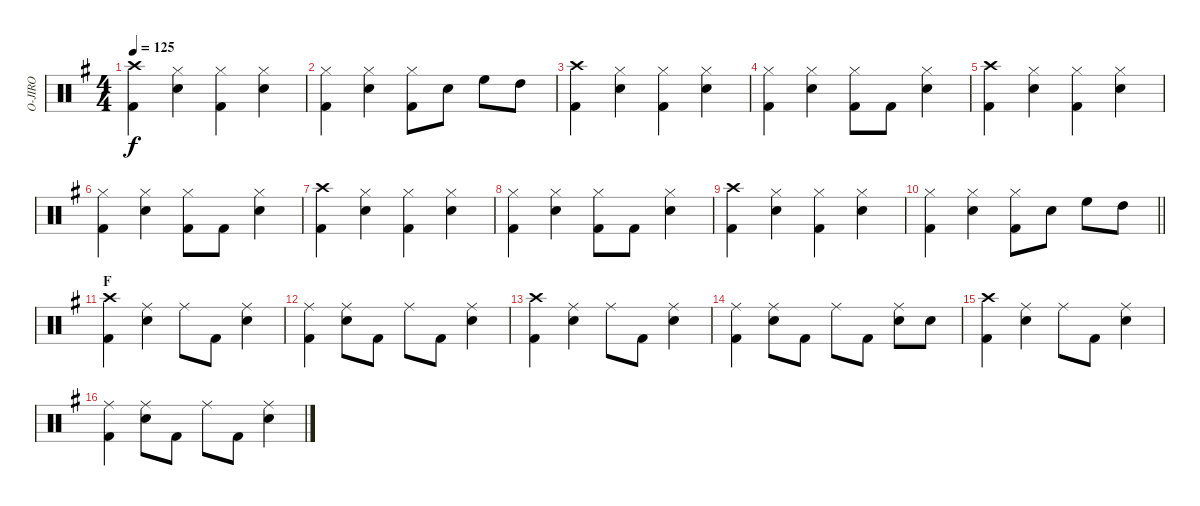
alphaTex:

\track ("O-JIRO" "O-JIRO") {instrument percussion}
\staff {score}
\articulation defaults
\ts (4 4)
\tempo 125
\clef neutral
\ks g
("Crash high (hit)" "Kick (hit) 2").4{dy f} ("Hi-Hat (closed)" "Snare (hit) 2").4 ("Hi-Hat (closed)" "Kick (hit) 2").4 ("Hi-Hat (closed)" "Snare (hit) 2").4 |
("Hi-Hat (closed)" "Kick (hit) 2").4 ("Hi-Hat (closed)" "Snare (hit) 2").4 ("Hi-Hat (closed)" "Kick (hit) 2").8 "Snare (hit) 2".8 "High Floor Tom (hit)".8 "High Tom (hit)".8 |
("Crash high (hit)" "Kick (hit) 2").4 ("Hi-Hat (closed)" "Snare (hit) 2").4 ("Hi-Hat (closed)" "Kick (hit) 2").4 ("Hi-Hat (closed)" "Snare (hit) 2").4 |
("Hi-Hat (closed)" "Kick (hit) 2").4 ("Hi-Hat (closed)" "Snare (hit) 2").4 ("Hi-Hat (closed)" "Kick (hit) 2").8 "Kick (hit) 2".8 ("Hi-Hat (closed)" "Snare (hit) 2").4 |
("Crash high (hit)" "Kick (hit) 2").4 ("Hi-Hat (closed)" "Snare (hit) 2").4 ("Hi-Hat (closed)" "Kick (hit) 2").4 ("Hi-Hat (closed)" "Snare (hit) 2").4 |
("Hi-Hat (closed)" "Kick (hit) 2").4 ("Hi-Hat (closed)" "Snare (hit) 2").4 ("Hi-Hat (closed)" "Kick (hit) 2").8 "Kick (hit) 2".8 ("Hi-Hat (closed)" "Snare (hit) 2").4 |
("Crash high (hit)" "Kick (hit) 2").4 ("Hi-Hat (closed)" "Snare (hit) 2").4 ("Hi-Hat (closed)" "Kick (hit) 2").4 ("Hi-Hat (closed)" "Snare (hit) 2").4 |
("Hi-Hat (closed)" "Kick (hit) 2").4 ("Hi-Hat (closed)" "Snare (hit) 2").4 ("Hi-Hat (closed)" "Kick (hit) 2").8 "Kick (hit) 2".8 ("Hi-Hat (closed)" "Snare (hit) 2").4 |
("Crash high (hit)" "Kick (hit) 2").4 ("Hi-Hat (closed)" "Snare (hit) 2").4 ("Hi-Hat (closed)" "Kick (hit) 2").4 ("Hi-Hat (closed)" "Snare (hit) 2").4 |
\barLineRight lightlight
("Hi-Hat (closed)" "Kick (hit) 2").4 ("Hi-Hat (closed)" "Snare (hit) 2").4 ("Hi-Hat (closed)" "Kick (hit) 2").8 "Snare (hit) 2".8 "High Floor Tom (hit)".8 "High Tom (hit)".8 |
\section ("" "F")
("Crash high (hit)" "Kick (hit) 2").4 ("Ride (middle)" "Snare (hit) 2").4 "Ride (middle)".8 "Kick (hit) 2".8 ("Ride (middle)" "Snare (hit) 2").4 |
("Ride (middle)" "Kick (hit) 2").4 ("Ride (middle)" "Snare (hit) 2").8 "Kick (hit) 2".8 "Ride (middle)".8 "Kick (hit) 2".8 ("Ride (middle)" "Snare (hit) 2").4 |
("Crash high (hit)" "Kick (hit) 2").4 ("Ride (middle)" "Snare (hit) 2").4 "Ride (middle)".8 "Kick (hit) 2".8 ("Ride (middle)" "Snare (hit) 2").4 |
("Ride (middle)" "Kick (hit) 2").4 ("Ride (middle)" "Snare (hit) 2").8 "Kick (hit) 2".8 "Ride (middle)".8 "Kick (hit) 2".8 ("Ride (middle)" "Snare (hit) 2").8 "Snare (hit) 2".8 |
("Crash high (hit)" "Kick (hit) 2").4 ("Ride (middle)" "Snare (hit) 2").4 "Ride (middle)".8 "Kick (hit) 2".8 ("Ride (middle)" "Snare (hit) 2").4 |
("Ride (middle)" "Kick (hit) 2").4 ("Ride (middle)" "Snare (hit) 2").8 "Kick (hit) 2".8 "Ride (middle)".8 "Kick (hit) 2".8 ("Ride (middle)" "Snare (hit) 2").4
